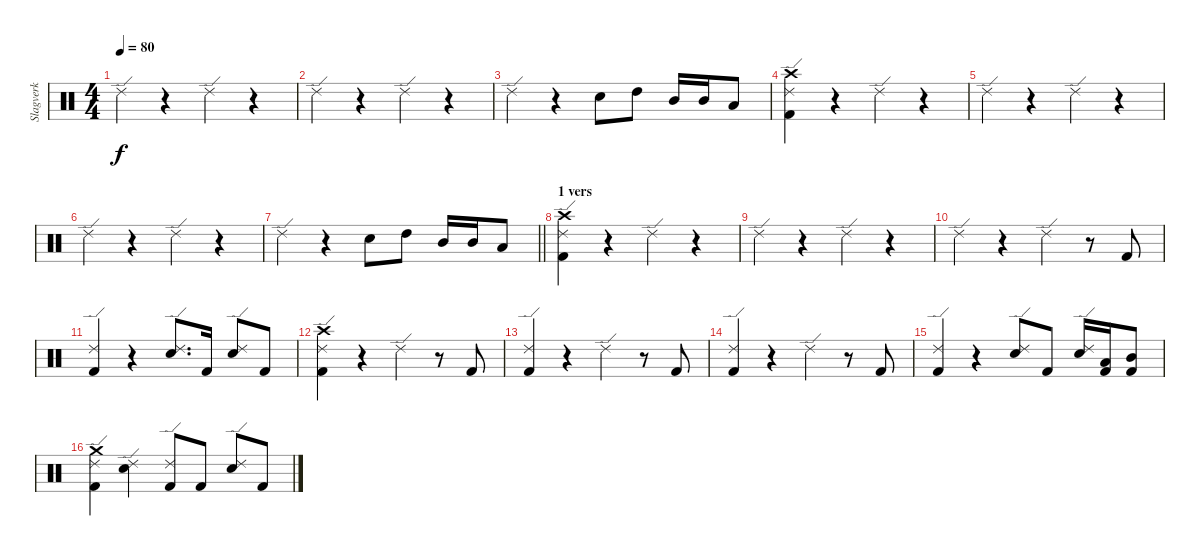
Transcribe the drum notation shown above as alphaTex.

\track ("Slagverk" "Slagverk") {instrument percussion}
\staff {score}
\articulation defaults
\ts (4 4)
\tempo 80
\clef neutral
\ks c "Ride (edge) 2".4{dy f}
r.4 "Ride (edge) 2".4 r.4 |
"Ride (edge) 2".4 r.4 "Ride (edge) 2".4 r.4 |
"Ride (edge) 2".4 r.4 "Electric Snare (hit)".8 "High Tom (hit)".8 "Mid Tom (hit)".16 "Mid Tom (hit)".16 "Low Tom (hit)".8 |
("Ride (edge) 2" "Kick (hit) 2" "Crash high (hit)").4 r.4 "Ride (edge) 2".4 r.4 |
"Ride (edge) 2".4 r.4 "Ride (edge) 2".4 r.4 |
"Ride (edge) 2".4 r.4 "Ride (edge) 2".4 r.4 |
\barLineRight lightlight "Ride (edge) 2".4
r.4 "Electric Snare (hit)".8 "High Tom (hit)".8 "Mid Tom (hit)".16 "Mid Tom (hit)".16 "Low Tom (hit)".8 |
\section ("" "1 vers")
("Ride (edge) 2" "Kick (hit) 2" "Crash high (hit)").4 r.4 "Ride (edge) 2".4 r.4 |
"Ride (edge) 2".4 r.4 "Ride (edge) 2".4 r.4 |
"Ride (edge) 2".4 r.4 "Ride (edge) 2".4 r.8 "Kick (hit) 2".8 |
("Ride (edge) 2" "Kick (hit) 2").4 r.4 ("Electric Snare (hit)" "Ride (edge) 2").8{d} "Kick (hit) 2".16 ("Electric Snare (hit)" "Ride (edge) 2").8 "Kick (hit) 2".8 |
("Ride (edge) 2" "Kick (hit) 2" "Crash high (hit)").4 r.4 "Ride (edge) 2".4 r.8 "Kick (hit) 2".8 |
("Ride (edge) 2" "Kick (hit) 2").4 r.4 "Ride (edge) 2".4 r.8 "Kick (hit) 2".8 |
("Ride (edge) 2" "Kick (hit) 2").4 r.4 "Ride (edge) 2".4 r.8 "Kick (hit) 2".8 |
("Ride (edge) 2" "Kick (hit) 2").4 r.4 ("Electric Snare (hit)" "Ride (edge) 2").8 "Kick (hit) 2".8 ("Electric Snare (hit)" "Ride (edge) 2").16 ("Low Tom (hit)" "Kick (hit) 2").16 ("Mid Tom (hit)" "Kick (hit) 2").8 |
("Ride (edge) 2" "Kick (hit) 2" "Crash medium (hit)").4 ("Electric Snare (hit)" "Ride (edge) 2").4 ("Ride (edge) 2" "Kick (hit) 2").8 "Kick (hit) 2".8 ("Electric Snare (hit)" "Ride (edge) 2").8 "Kick (hit) 2".8
